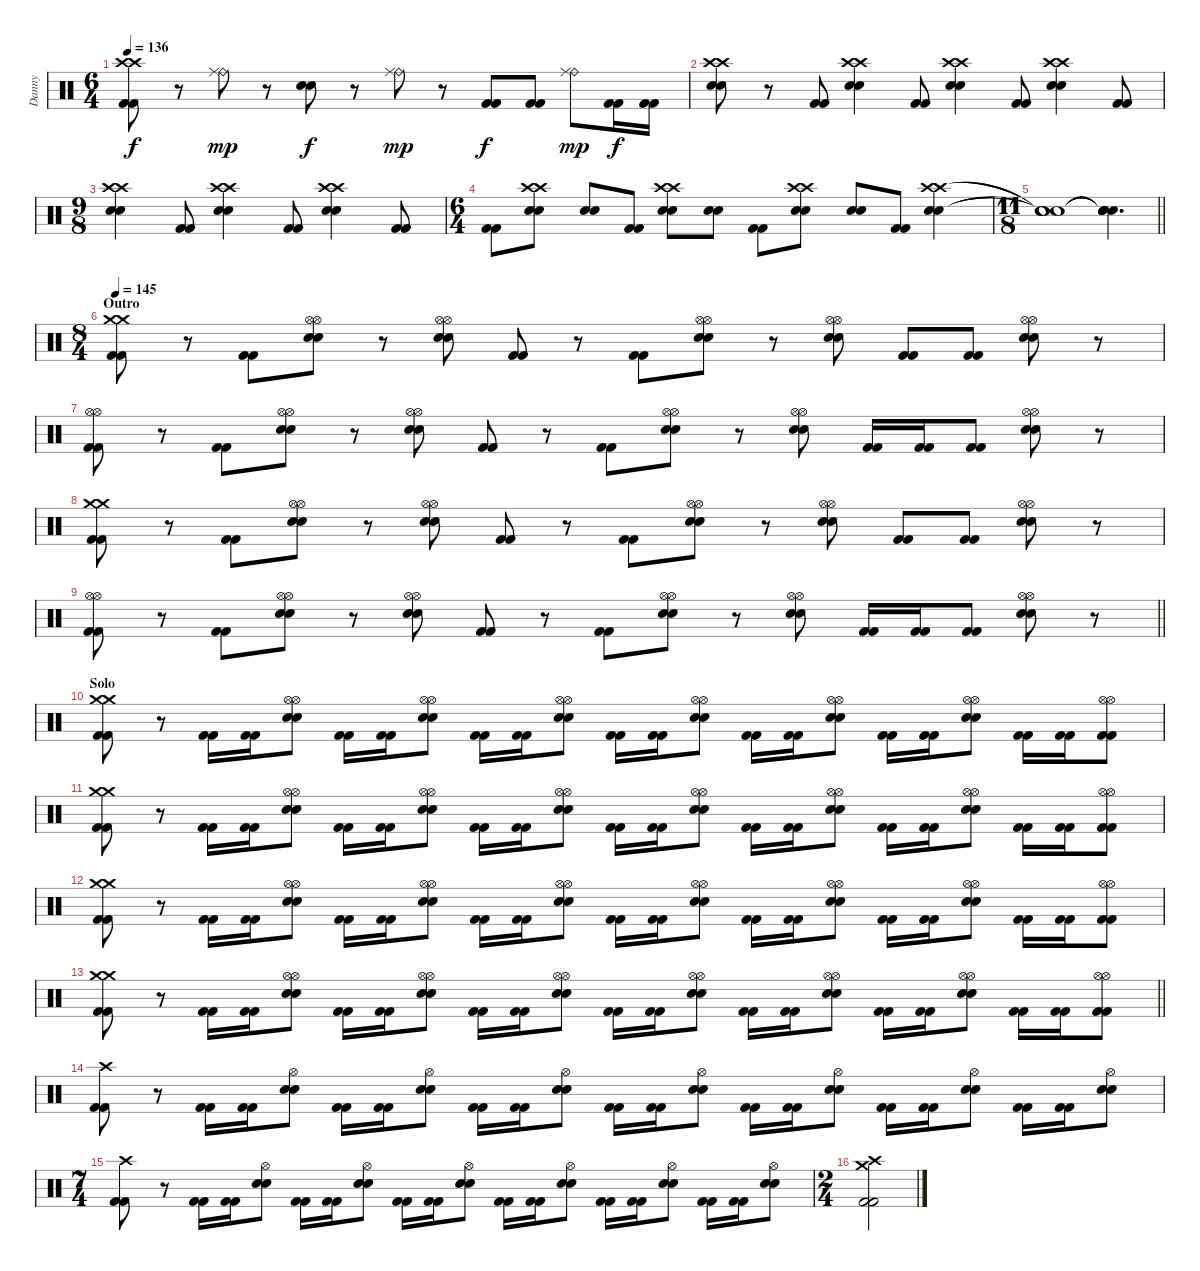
\track ("Danny" "Danny") {instrument percussion}
\staff {score}
\articulation defaults
\ts (6 4)
\tempo 136
\clef neutral
\ks c
("Crash high (hit)" "Kick (hit) 2" "Kick (hit) 2" "Crash high (hit)").8{dy f} r.8 ("Ride (bell)" "Ride (middle)").8{dy mp} r.8 ("Snare (hit) 2" "Snare (hit) 2").8{dy f} r.8 ("Ride (bell)" "Ride (middle)").8{dy mp} r.8 ("Kick (hit) 2" "Kick (hit) 2").8{dy f} ("Kick (hit) 2" "Kick (hit) 2").8 ("Ride (bell)" "Ride (middle)").8{dy mp} ("Kick (hit) 2" "Kick (hit) 2").16{dy f} ("Kick (hit) 2" "Kick (hit) 2").16 |
("Crash high (hit)" "Snare (hit) 2" "Snare (hit) 2" "Crash high (hit)").8 r.8 ("Kick (hit) 2" "Kick (hit) 2").8 ("Crash high (hit)" "Snare (hit) 2" "Snare (hit) 2" "Crash high (hit)").4 ("Kick (hit) 2" "Kick (hit) 2").8 ("Crash high (hit)" "Snare (hit) 2" "Snare (hit) 2" "Crash high (hit)").4 ("Kick (hit) 2" "Kick (hit) 2").8 ("Crash high (hit)" "Snare (hit) 2" "Snare (hit) 2" "Crash high (hit)").4 ("Kick (hit) 2" "Kick (hit) 2").8 |
\ts (9 8)
("Crash high (hit)" "Snare (hit) 2" "Snare (hit) 2" "Crash high (hit)").4 ("Kick (hit) 2" "Kick (hit) 2").8 ("Crash high (hit)" "Snare (hit) 2" "Snare (hit) 2" "Crash high (hit)").4 ("Kick (hit) 2" "Kick (hit) 2").8 ("Crash high (hit)" "Snare (hit) 2" "Snare (hit) 2" "Crash high (hit)").4 ("Kick (hit) 2" "Kick (hit) 2").8 |
\ts (6 4)
("Kick (hit) 2" "Kick (hit) 2").8 ("Crash high (hit)" "Snare (hit) 2" "Snare (hit) 2" "Crash high (hit)").8 ("Snare (hit) 2" "Snare (hit) 2").8 ("Kick (hit) 2" "Kick (hit) 2").8 ("Crash high (hit)" "Snare (hit) 2" "Snare (hit) 2" "Crash high (hit)").8 ("Snare (hit) 2" "Snare (hit) 2").8 ("Kick (hit) 2" "Kick (hit) 2").8 ("Crash high (hit)" "Snare (hit) 2" "Snare (hit) 2" "Crash high (hit)").8 ("Snare (hit) 2" "Snare (hit) 2").8 ("Kick (hit) 2" "Kick (hit) 2").8 ("Crash high (hit)" "Snare (hit) 2" "Snare (hit) 2" "Crash high (hit)").4 |
\ts (11 8)
\barLineRight lightlight
("Snare (hit)"{t} "Snare (hit)"{t} "Snare (hit)"{t} "Snare (hit)"{t}).1 ("Snare (hit)"{t} "Snare (hit)"{t} "Snare (hit)"{t} "Snare (hit)"{t}).4{d} |
\ts (8 4)
\section ("" "Outro")
\tempo 145
("Crash medium (hit)" "Kick (hit) 2" "Kick (hit) 2" "Crash medium (hit)").8 r.8 ("Kick (hit) 2" "Kick (hit) 2").8 ("Hi-Hat (open)" "Snare (hit) 2" "Snare (hit) 2" "Hi-Hat (open)").8 r.8 ("Hi-Hat (open)" "Snare (hit) 2" "Snare (hit) 2" "Hi-Hat (open)").8 ("Kick (hit) 2" "Kick (hit) 2").8 r.8 ("Kick (hit) 2" "Kick (hit) 2").8 ("Hi-Hat (open)" "Snare (hit) 2" "Snare (hit) 2" "Hi-Hat (open)").8 r.8 ("Hi-Hat (open)" "Snare (hit) 2" "Snare (hit) 2" "Hi-Hat (open)").8 ("Kick (hit) 2" "Kick (hit) 2").8 ("Kick (hit) 2" "Kick (hit) 2").8 ("Hi-Hat (open)" "Snare (hit) 2" "Snare (hit) 2" "Hi-Hat (open)").8 r.8 |
("Hi-Hat (open)" "Kick (hit) 2" "Kick (hit) 2" "Hi-Hat (open)").8 r.8 ("Kick (hit) 2" "Kick (hit) 2").8 ("Hi-Hat (open)" "Snare (hit) 2" "Snare (hit) 2" "Hi-Hat (open)").8 r.8 ("Hi-Hat (open)" "Snare (hit) 2" "Snare (hit) 2" "Hi-Hat (open)").8 ("Kick (hit) 2" "Kick (hit) 2").8 r.8 ("Kick (hit) 2" "Kick (hit) 2").8 ("Hi-Hat (open)" "Snare (hit) 2" "Snare (hit) 2" "Hi-Hat (open)").8 r.8 ("Hi-Hat (open)" "Snare (hit) 2" "Snare (hit) 2" "Hi-Hat (open)").8 ("Kick (hit) 2" "Kick (hit) 2").16 ("Kick (hit) 2" "Kick (hit) 2").16 ("Kick (hit) 2" "Kick (hit) 2").8 ("Hi-Hat (open)" "Snare (hit) 2" "Snare (hit) 2" "Hi-Hat (open)").8 r.8 |
("Crash medium (hit)" "Kick (hit) 2" "Kick (hit) 2" "Crash medium (hit)").8 r.8 ("Kick (hit) 2" "Kick (hit) 2").8 ("Hi-Hat (open)" "Snare (hit) 2" "Snare (hit) 2" "Hi-Hat (open)").8 r.8 ("Hi-Hat (open)" "Snare (hit) 2" "Snare (hit) 2" "Hi-Hat (open)").8 ("Kick (hit) 2" "Kick (hit) 2").8 r.8 ("Kick (hit) 2" "Kick (hit) 2").8 ("Hi-Hat (open)" "Snare (hit) 2" "Snare (hit) 2" "Hi-Hat (open)").8 r.8 ("Hi-Hat (open)" "Snare (hit) 2" "Snare (hit) 2" "Hi-Hat (open)").8 ("Kick (hit) 2" "Kick (hit) 2").8 ("Kick (hit) 2" "Kick (hit) 2").8 ("Hi-Hat (open)" "Snare (hit) 2" "Snare (hit) 2" "Hi-Hat (open)").8 r.8 |
\barLineRight lightlight
("Hi-Hat (open)" "Kick (hit) 2" "Kick (hit) 2" "Hi-Hat (open)").8 r.8 ("Kick (hit) 2" "Kick (hit) 2").8 ("Hi-Hat (open)" "Snare (hit) 2" "Snare (hit) 2" "Hi-Hat (open)").8 r.8 ("Hi-Hat (open)" "Snare (hit) 2" "Snare (hit) 2" "Hi-Hat (open)").8 ("Kick (hit) 2" "Kick (hit) 2").8 r.8 ("Kick (hit) 2" "Kick (hit) 2").8 ("Hi-Hat (open)" "Snare (hit) 2" "Snare (hit) 2" "Hi-Hat (open)").8 r.8 ("Hi-Hat (open)" "Snare (hit) 2" "Snare (hit) 2" "Hi-Hat (open)").8 ("Kick (hit) 2" "Kick (hit) 2").16 ("Kick (hit) 2" "Kick (hit) 2").16 ("Kick (hit) 2" "Kick (hit) 2").8 ("Hi-Hat (open)" "Snare (hit) 2" "Snare (hit) 2" "Hi-Hat (open)").8 r.8 |
\section ("" "Solo")
("Crash medium (hit)" "Kick (hit) 2" "Kick (hit) 2" "Crash medium (hit)").8 r.8 ("Kick (hit) 2" "Kick (hit) 2").16 ("Kick (hit) 2" "Kick (hit) 2").16 ("Hi-Hat (open)" "Snare (hit) 2" "Snare (hit) 2" "Hi-Hat (open)").8 ("Kick (hit) 2" "Kick (hit) 2").16 ("Kick (hit) 2" "Kick (hit) 2").16 ("Hi-Hat (open)" "Snare (hit) 2" "Snare (hit) 2" "Hi-Hat (open)").8 ("Kick (hit) 2" "Kick (hit) 2").16 ("Kick (hit) 2" "Kick (hit) 2").16 ("Hi-Hat (open)" "Snare (hit) 2" "Snare (hit) 2" "Hi-Hat (open)").8 ("Kick (hit) 2" "Kick (hit) 2").16 ("Kick (hit) 2" "Kick (hit) 2").16 ("Hi-Hat (open)" "Snare (hit) 2" "Snare (hit) 2" "Hi-Hat (open)").8 ("Kick (hit) 2" "Kick (hit) 2").16 ("Kick (hit) 2" "Kick (hit) 2").16 ("Hi-Hat (open)" "Snare (hit) 2" "Snare (hit) 2" "Hi-Hat (open)").8 ("Kick (hit) 2" "Kick (hit) 2").16 ("Kick (hit) 2" "Kick (hit) 2").16 ("Hi-Hat (open)" "Snare (hit) 2" "Snare (hit) 2" "Hi-Hat (open)").8 ("Kick (hit) 2" "Kick (hit) 2").16 ("Kick (hit) 2" "Kick (hit) 2").16 ("Hi-Hat (open)" "Kick (hit) 2" "Kick (hit) 2" "Hi-Hat (open)").8 |
("Crash medium (hit)" "Kick (hit) 2" "Kick (hit) 2" "Crash medium (hit)").8 r.8 ("Kick (hit) 2" "Kick (hit) 2").16 ("Kick (hit) 2" "Kick (hit) 2").16 ("Hi-Hat (open)" "Snare (hit) 2" "Snare (hit) 2" "Hi-Hat (open)").8 ("Kick (hit) 2" "Kick (hit) 2").16 ("Kick (hit) 2" "Kick (hit) 2").16 ("Hi-Hat (open)" "Snare (hit) 2" "Snare (hit) 2" "Hi-Hat (open)").8 ("Kick (hit) 2" "Kick (hit) 2").16 ("Kick (hit) 2" "Kick (hit) 2").16 ("Hi-Hat (open)" "Snare (hit) 2" "Snare (hit) 2" "Hi-Hat (open)").8 ("Kick (hit) 2" "Kick (hit) 2").16 ("Kick (hit) 2" "Kick (hit) 2").16 ("Hi-Hat (open)" "Snare (hit) 2" "Snare (hit) 2" "Hi-Hat (open)").8 ("Kick (hit) 2" "Kick (hit) 2").16 ("Kick (hit) 2" "Kick (hit) 2").16 ("Hi-Hat (open)" "Snare (hit) 2" "Snare (hit) 2" "Hi-Hat (open)").8 ("Kick (hit) 2" "Kick (hit) 2").16 ("Kick (hit) 2" "Kick (hit) 2").16 ("Hi-Hat (open)" "Snare (hit) 2" "Snare (hit) 2" "Hi-Hat (open)").8 ("Kick (hit) 2" "Kick (hit) 2").16 ("Kick (hit) 2" "Kick (hit) 2").16 ("Hi-Hat (open)" "Kick (hit) 2" "Kick (hit) 2" "Hi-Hat (open)").8 |
("Crash medium (hit)" "Kick (hit) 2" "Kick (hit) 2" "Crash medium (hit)").8 r.8 ("Kick (hit) 2" "Kick (hit) 2").16 ("Kick (hit) 2" "Kick (hit) 2").16 ("Hi-Hat (open)" "Snare (hit) 2" "Snare (hit) 2" "Hi-Hat (open)").8 ("Kick (hit) 2" "Kick (hit) 2").16 ("Kick (hit) 2" "Kick (hit) 2").16 ("Hi-Hat (open)" "Snare (hit) 2" "Snare (hit) 2" "Hi-Hat (open)").8 ("Kick (hit) 2" "Kick (hit) 2").16 ("Kick (hit) 2" "Kick (hit) 2").16 ("Hi-Hat (open)" "Snare (hit) 2" "Snare (hit) 2" "Hi-Hat (open)").8 ("Kick (hit) 2" "Kick (hit) 2").16 ("Kick (hit) 2" "Kick (hit) 2").16 ("Hi-Hat (open)" "Snare (hit) 2" "Snare (hit) 2" "Hi-Hat (open)").8 ("Kick (hit) 2" "Kick (hit) 2").16 ("Kick (hit) 2" "Kick (hit) 2").16 ("Hi-Hat (open)" "Snare (hit) 2" "Snare (hit) 2" "Hi-Hat (open)").8 ("Kick (hit) 2" "Kick (hit) 2").16 ("Kick (hit) 2" "Kick (hit) 2").16 ("Hi-Hat (open)" "Snare (hit) 2" "Snare (hit) 2" "Hi-Hat (open)").8 ("Kick (hit) 2" "Kick (hit) 2").16 ("Kick (hit) 2" "Kick (hit) 2").16 ("Hi-Hat (open)" "Kick (hit) 2" "Kick (hit) 2" "Hi-Hat (open)").8 |
\barLineRight lightlight
("Crash medium (hit)" "Kick (hit) 2" "Kick (hit) 2" "Crash medium (hit)").8 r.8 ("Kick (hit) 2" "Kick (hit) 2").16 ("Kick (hit) 2" "Kick (hit) 2").16 ("Hi-Hat (open)" "Snare (hit) 2" "Snare (hit) 2" "Hi-Hat (open)").8 ("Kick (hit) 2" "Kick (hit) 2").16 ("Kick (hit) 2" "Kick (hit) 2").16 ("Hi-Hat (open)" "Snare (hit) 2" "Snare (hit) 2" "Hi-Hat (open)").8 ("Kick (hit) 2" "Kick (hit) 2").16 ("Kick (hit) 2" "Kick (hit) 2").16 ("Hi-Hat (open)" "Snare (hit) 2" "Snare (hit) 2" "Hi-Hat (open)").8 ("Kick (hit) 2" "Kick (hit) 2").16 ("Kick (hit) 2" "Kick (hit) 2").16 ("Hi-Hat (open)" "Snare (hit) 2" "Snare (hit) 2" "Hi-Hat (open)").8 ("Kick (hit) 2" "Kick (hit) 2").16 ("Kick (hit) 2" "Kick (hit) 2").16 ("Hi-Hat (open)" "Snare (hit) 2" "Snare (hit) 2" "Hi-Hat (open)").8 ("Kick (hit) 2" "Kick (hit) 2").16 ("Kick (hit) 2" "Kick (hit) 2").16 ("Hi-Hat (open)" "Snare (hit) 2" "Snare (hit) 2" "Hi-Hat (open)").8 ("Kick (hit) 2" "Kick (hit) 2").16 ("Kick (hit) 2" "Kick (hit) 2").16 ("Hi-Hat (open)" "Kick (hit) 2" "Kick (hit) 2" "Hi-Hat (open)").8 |
\section ("" "")
("Crash high (hit)" "Kick (hit) 2" "Kick (hit) 2").8 r.8 ("Kick (hit) 2" "Kick (hit) 2").16 ("Kick (hit) 2" "Kick (hit) 2").16 ("Hi-Hat (open)" "Snare (hit) 2" "Snare (hit) 2").8 ("Kick (hit) 2" "Kick (hit) 2").16 ("Kick (hit) 2" "Kick (hit) 2").16 ("Hi-Hat (open)" "Snare (hit) 2" "Snare (hit) 2").8 ("Kick (hit) 2" "Kick (hit) 2").16 ("Kick (hit) 2" "Kick (hit) 2").16 ("Hi-Hat (open)" "Snare (hit) 2" "Snare (hit) 2").8 ("Kick (hit) 2" "Kick (hit) 2").16 ("Kick (hit) 2" "Kick (hit) 2").16 ("Hi-Hat (open)" "Snare (hit) 2" "Snare (hit) 2").8 ("Kick (hit) 2" "Kick (hit) 2").16 ("Kick (hit) 2" "Kick (hit) 2").16 ("Hi-Hat (open)" "Snare (hit) 2" "Snare (hit) 2").8 ("Kick (hit) 2" "Kick (hit) 2").16 ("Kick (hit) 2" "Kick (hit) 2").16 ("Hi-Hat (open)" "Snare (hit) 2" "Snare (hit) 2").8 ("Kick (hit) 2" "Kick (hit) 2").16 ("Kick (hit) 2" "Kick (hit) 2").16 ("Hi-Hat (open)" "Snare (hit) 2" "Snare (hit) 2").8 |
\ts (7 4)
("Crash high (hit)" "Kick (hit) 2" "Kick (hit) 2").8 r.8 ("Kick (hit) 2" "Kick (hit) 2").16 ("Kick (hit) 2" "Kick (hit) 2").16 ("Hi-Hat (open)" "Snare (hit) 2" "Snare (hit) 2").8 ("Kick (hit) 2" "Kick (hit) 2").16 ("Kick (hit) 2" "Kick (hit) 2").16 ("Hi-Hat (open)" "Snare (hit) 2" "Snare (hit) 2").8 ("Kick (hit) 2" "Kick (hit) 2").16 ("Kick (hit) 2" "Kick (hit) 2").16 ("Hi-Hat (open)" "Snare (hit) 2" "Snare (hit) 2").8 ("Kick (hit) 2" "Kick (hit) 2").16 ("Kick (hit) 2" "Kick (hit) 2").16 ("Hi-Hat (open)" "Snare (hit) 2" "Snare (hit) 2").8 ("Kick (hit) 2" "Kick (hit) 2").16 ("Kick (hit) 2" "Kick (hit) 2").16 ("Hi-Hat (open)" "Snare (hit) 2" "Snare (hit) 2").8 ("Kick (hit) 2" "Kick (hit) 2").16 ("Kick (hit) 2" "Kick (hit) 2").16 ("Hi-Hat (open)" "Snare (hit) 2" "Snare (hit) 2").8 |
\ts (2 4)
("Crash high (hit)" "Kick (hit) 2" "Kick (hit) 2" "Crash medium (hit)").2
